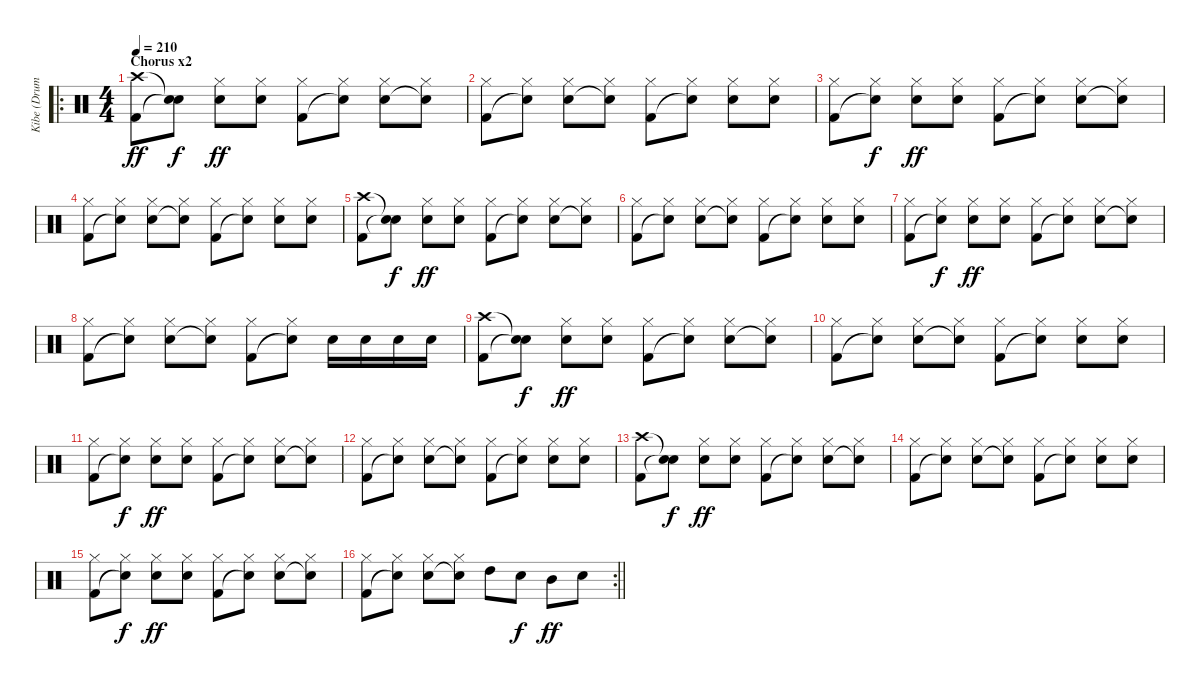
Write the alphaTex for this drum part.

\track ("Kibe (Drums)" "Kibe (Drum") {instrument percussion}
\staff {score}
\articulation defaults
\ro
\ts (4 4)
\section ("" "Chorus x2")
\tempo 210
\clef neutral
\ks c
("Crash high (hit)" "Kick (hit) 2").8{dy ff} ("Snare (hit)"{t} "Snare (hit)"{t}).8{dy f} ("Hi-Hat (closed)" "Snare (hit) 2").8{dy ff} ("Hi-Hat (closed)" "Snare (hit) 2").8 ("Hi-Hat (closed)" "Kick (hit) 2").8 ("Hi-Hat (closed)" "Snare (hit)"{t}).8 ("Hi-Hat (closed)" "Snare (hit) 2").8 ("Hi-Hat (closed)" "Snare (hit)"{t}).8 |
("Hi-Hat (closed)" "Kick (hit) 2").8 ("Hi-Hat (closed)" "Snare (hit)"{t}).8 ("Hi-Hat (closed)" "Snare (hit) 2").8 ("Hi-Hat (closed)" "Snare (hit)"{t}).8 ("Hi-Hat (closed)" "Kick (hit) 2").8 ("Hi-Hat (closed)" "Snare (hit)"{t}).8 ("Hi-Hat (closed)" "Snare (hit) 2").8 ("Hi-Hat (closed)" "Snare (hit) 2").8 |
("Hi-Hat (closed)" "Kick (hit) 2").8 ("Hi-Hat (closed)" "Snare (hit)"{t}).8{dy f} ("Hi-Hat (closed)" "Snare (hit) 2").8{dy ff} ("Hi-Hat (closed)" "Snare (hit) 2").8 ("Hi-Hat (closed)" "Kick (hit) 2").8 ("Hi-Hat (closed)" "Snare (hit)"{t}).8 ("Hi-Hat (closed)" "Snare (hit) 2").8 ("Hi-Hat (closed)" "Snare (hit)"{t}).8 |
("Hi-Hat (closed)" "Kick (hit) 2").8 ("Hi-Hat (closed)" "Snare (hit)"{t}).8 ("Hi-Hat (closed)" "Snare (hit) 2").8 ("Hi-Hat (closed)" "Snare (hit)"{t}).8 ("Hi-Hat (closed)" "Kick (hit) 2").8 ("Hi-Hat (closed)" "Snare (hit)"{t}).8 ("Hi-Hat (closed)" "Snare (hit) 2").8 ("Hi-Hat (closed)" "Snare (hit) 2").8 |
("Crash high (hit)" "Kick (hit) 2").8 ("Snare (hit)"{t} "Snare (hit)"{t}).8{dy f} ("Hi-Hat (closed)" "Snare (hit) 2").8{dy ff} ("Hi-Hat (closed)" "Snare (hit) 2").8 ("Hi-Hat (closed)" "Kick (hit) 2").8 ("Hi-Hat (closed)" "Snare (hit)"{t}).8 ("Hi-Hat (closed)" "Snare (hit) 2").8 ("Hi-Hat (closed)" "Snare (hit)"{t}).8 |
("Hi-Hat (closed)" "Kick (hit) 2").8 ("Hi-Hat (closed)" "Snare (hit)"{t}).8 ("Hi-Hat (closed)" "Snare (hit) 2").8 ("Hi-Hat (closed)" "Snare (hit)"{t}).8 ("Hi-Hat (closed)" "Kick (hit) 2").8 ("Hi-Hat (closed)" "Snare (hit)"{t}).8 ("Hi-Hat (closed)" "Snare (hit) 2").8 ("Hi-Hat (closed)" "Snare (hit) 2").8 |
("Hi-Hat (closed)" "Kick (hit) 2").8 ("Hi-Hat (closed)" "Snare (hit)"{t}).8{dy f} ("Hi-Hat (closed)" "Snare (hit) 2").8{dy ff} ("Hi-Hat (closed)" "Snare (hit) 2").8 ("Hi-Hat (closed)" "Kick (hit) 2").8 ("Hi-Hat (closed)" "Snare (hit)"{t}).8 ("Hi-Hat (closed)" "Snare (hit) 2").8 ("Hi-Hat (closed)" "Snare (hit)"{t}).8 |
("Hi-Hat (closed)" "Kick (hit) 2").8 ("Hi-Hat (closed)" "Snare (hit)"{t}).8 ("Hi-Hat (closed)" "Snare (hit) 2").8 ("Hi-Hat (closed)" "Snare (hit)"{t}).8 ("Hi-Hat (closed)" "Kick (hit) 2").8 ("Hi-Hat (closed)" "Snare (hit)"{t}).8 "Snare (hit) 2".16 "Snare (hit) 2".16 "Snare (hit) 2".16 "Snare (hit) 2".16 |
("Crash high (hit)" "Kick (hit) 2").8 ("Snare (hit)"{t} "Snare (hit)"{t}).8{dy f} ("Hi-Hat (closed)" "Snare (hit) 2").8{dy ff} ("Hi-Hat (closed)" "Snare (hit) 2").8 ("Hi-Hat (closed)" "Kick (hit) 2").8 ("Hi-Hat (closed)" "Snare (hit)"{t}).8 ("Hi-Hat (closed)" "Snare (hit) 2").8 ("Hi-Hat (closed)" "Snare (hit)"{t}).8 |
("Hi-Hat (closed)" "Kick (hit) 2").8 ("Hi-Hat (closed)" "Snare (hit)"{t}).8 ("Hi-Hat (closed)" "Snare (hit) 2").8 ("Hi-Hat (closed)" "Snare (hit)"{t}).8 ("Hi-Hat (closed)" "Kick (hit) 2").8 ("Hi-Hat (closed)" "Snare (hit)"{t}).8 ("Hi-Hat (closed)" "Snare (hit) 2").8 ("Hi-Hat (closed)" "Snare (hit) 2").8 |
("Hi-Hat (closed)" "Kick (hit) 2").8 ("Hi-Hat (closed)" "Snare (hit)"{t}).8{dy f} ("Hi-Hat (closed)" "Snare (hit) 2").8{dy ff} ("Hi-Hat (closed)" "Snare (hit) 2").8 ("Hi-Hat (closed)" "Kick (hit) 2").8 ("Hi-Hat (closed)" "Snare (hit)"{t}).8 ("Hi-Hat (closed)" "Snare (hit) 2").8 ("Hi-Hat (closed)" "Snare (hit)"{t}).8 |
("Hi-Hat (closed)" "Kick (hit) 2").8 ("Hi-Hat (closed)" "Snare (hit)"{t}).8 ("Hi-Hat (closed)" "Snare (hit) 2").8 ("Hi-Hat (closed)" "Snare (hit)"{t}).8 ("Hi-Hat (closed)" "Kick (hit) 2").8 ("Hi-Hat (closed)" "Snare (hit)"{t}).8 ("Hi-Hat (closed)" "Snare (hit) 2").8 ("Hi-Hat (closed)" "Snare (hit) 2").8 |
("Crash high (hit)" "Kick (hit) 2").8 ("Snare (hit)"{t} "Snare (hit)"{t}).8{dy f} ("Hi-Hat (closed)" "Snare (hit) 2").8{dy ff} ("Hi-Hat (closed)" "Snare (hit) 2").8 ("Hi-Hat (closed)" "Kick (hit) 2").8 ("Hi-Hat (closed)" "Snare (hit)"{t}).8 ("Hi-Hat (closed)" "Snare (hit) 2").8 ("Hi-Hat (closed)" "Snare (hit)"{t}).8 |
("Hi-Hat (closed)" "Kick (hit) 2").8 ("Hi-Hat (closed)" "Snare (hit)"{t}).8 ("Hi-Hat (closed)" "Snare (hit) 2").8 ("Hi-Hat (closed)" "Snare (hit)"{t}).8 ("Hi-Hat (closed)" "Kick (hit) 2").8 ("Hi-Hat (closed)" "Snare (hit)"{t}).8 ("Hi-Hat (closed)" "Snare (hit) 2").8 ("Hi-Hat (closed)" "Snare (hit) 2").8 |
("Hi-Hat (closed)" "Kick (hit) 2").8 ("Hi-Hat (closed)" "Snare (hit)"{t}).8{dy f} ("Hi-Hat (closed)" "Snare (hit) 2").8{dy ff} ("Hi-Hat (closed)" "Snare (hit) 2").8 ("Hi-Hat (closed)" "Kick (hit) 2").8 ("Hi-Hat (closed)" "Snare (hit)"{t}).8 ("Hi-Hat (closed)" "Snare (hit) 2").8 ("Hi-Hat (closed)" "Snare (hit)"{t}).8 |
\rc 2
\barLineRight lightlight
("Hi-Hat (closed)" "Kick (hit) 2").8 ("Hi-Hat (closed)" "Snare (hit)"{t}).8 ("Hi-Hat (closed)" "Snare (hit) 2").8 ("Hi-Hat (closed)" "Snare (hit)"{t}).8 "High Tom (hit)".8 "Snare (hit) 2".8{dy f} "Mid Tom (hit)".8{dy ff} "Snare (hit) 2".8
